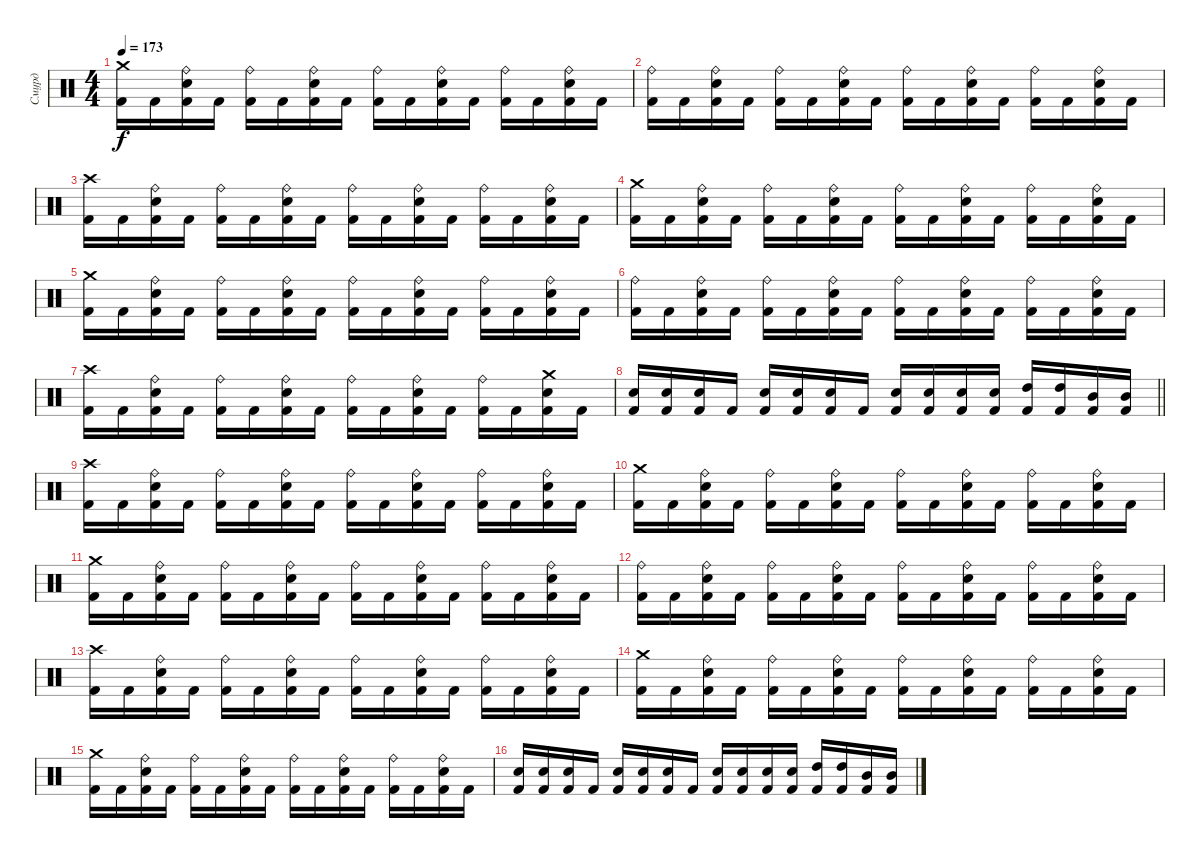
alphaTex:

\track ("Смурд" "Смурд") {instrument percussion}
\staff {score}
\articulation defaults
\ts (4 4)
\tempo 173
\clef neutral
\ks c
("Crash medium (hit)" "Kick (hit) 2").16{dy f} "Kick (hit) 2".16 ("Ride (bell)" "Electric Snare (hit)" "Kick (hit) 2").16 "Kick (hit) 2".16 ("Ride (bell)" "Kick (hit) 2").16 "Kick (hit) 2".16 ("Ride (bell)" "Electric Snare (hit)" "Kick (hit) 2").16 "Kick (hit) 2".16 ("Ride (bell)" "Kick (hit) 2").16 "Kick (hit) 2".16 ("Ride (bell)" "Electric Snare (hit)" "Kick (hit) 2").16 "Kick (hit) 2".16 ("Ride (bell)" "Kick (hit) 2").16 "Kick (hit) 2".16 ("Ride (bell)" "Electric Snare (hit)" "Kick (hit) 2").16 "Kick (hit) 2".16 |
("Ride (bell)" "Kick (hit) 2").16 "Kick (hit) 2".16 ("Ride (bell)" "Electric Snare (hit)" "Kick (hit) 2").16 "Kick (hit) 2".16 ("Ride (bell)" "Kick (hit) 2").16 "Kick (hit) 2".16 ("Ride (bell)" "Electric Snare (hit)" "Kick (hit) 2").16 "Kick (hit) 2".16 ("Ride (bell)" "Kick (hit) 2").16 "Kick (hit) 2".16 ("Ride (bell)" "Electric Snare (hit)" "Kick (hit) 2").16 "Kick (hit) 2".16 ("Ride (bell)" "Kick (hit) 2").16 "Kick (hit) 2".16 ("Ride (bell)" "Electric Snare (hit)" "Kick (hit) 2").16 "Kick (hit) 2".16 |
("Crash high (hit)" "Kick (hit) 2").16 "Kick (hit) 2".16 ("Ride (bell)" "Electric Snare (hit)" "Kick (hit) 2").16 "Kick (hit) 2".16 ("Ride (bell)" "Kick (hit) 2").16 "Kick (hit) 2".16 ("Ride (bell)" "Electric Snare (hit)" "Kick (hit) 2").16 "Kick (hit) 2".16 ("Ride (bell)" "Kick (hit) 2").16 "Kick (hit) 2".16 ("Ride (bell)" "Electric Snare (hit)" "Kick (hit) 2").16 "Kick (hit) 2".16 ("Ride (bell)" "Kick (hit) 2").16 "Kick (hit) 2".16 ("Ride (bell)" "Electric Snare (hit)" "Kick (hit) 2").16 "Kick (hit) 2".16 |
("Crash medium (hit)" "Kick (hit) 2").16 "Kick (hit) 2".16 ("Ride (bell)" "Electric Snare (hit)" "Kick (hit) 2").16 "Kick (hit) 2".16 ("Ride (bell)" "Kick (hit) 2").16 "Kick (hit) 2".16 ("Ride (bell)" "Electric Snare (hit)" "Kick (hit) 2").16 "Kick (hit) 2".16 ("Ride (bell)" "Kick (hit) 2").16 "Kick (hit) 2".16 ("Ride (bell)" "Electric Snare (hit)" "Kick (hit) 2").16 "Kick (hit) 2".16 ("Ride (bell)" "Kick (hit) 2").16 "Kick (hit) 2".16 ("Ride (bell)" "Electric Snare (hit)" "Kick (hit) 2").16 "Kick (hit) 2".16 |
("Crash medium (hit)" "Kick (hit) 2").16 "Kick (hit) 2".16 ("Ride (bell)" "Electric Snare (hit)" "Kick (hit) 2").16 "Kick (hit) 2".16 ("Ride (bell)" "Kick (hit) 2").16 "Kick (hit) 2".16 ("Ride (bell)" "Electric Snare (hit)" "Kick (hit) 2").16 "Kick (hit) 2".16 ("Ride (bell)" "Kick (hit) 2").16 "Kick (hit) 2".16 ("Ride (bell)" "Electric Snare (hit)" "Kick (hit) 2").16 "Kick (hit) 2".16 ("Ride (bell)" "Kick (hit) 2").16 "Kick (hit) 2".16 ("Ride (bell)" "Electric Snare (hit)" "Kick (hit) 2").16 "Kick (hit) 2".16 |
("Ride (bell)" "Kick (hit) 2").16 "Kick (hit) 2".16 ("Ride (bell)" "Electric Snare (hit)" "Kick (hit) 2").16 "Kick (hit) 2".16 ("Ride (bell)" "Kick (hit) 2").16 "Kick (hit) 2".16 ("Ride (bell)" "Electric Snare (hit)" "Kick (hit) 2").16 "Kick (hit) 2".16 ("Ride (bell)" "Kick (hit) 2").16 "Kick (hit) 2".16 ("Ride (bell)" "Electric Snare (hit)" "Kick (hit) 2").16 "Kick (hit) 2".16 ("Ride (bell)" "Kick (hit) 2").16 "Kick (hit) 2".16 ("Ride (bell)" "Electric Snare (hit)" "Kick (hit) 2").16 "Kick (hit) 2".16 |
("Crash high (hit)" "Kick (hit) 2").16 "Kick (hit) 2".16 ("Ride (bell)" "Electric Snare (hit)" "Kick (hit) 2").16 "Kick (hit) 2".16 ("Ride (bell)" "Kick (hit) 2").16 "Kick (hit) 2".16 ("Ride (bell)" "Electric Snare (hit)" "Kick (hit) 2").16 "Kick (hit) 2".16 ("Ride (bell)" "Kick (hit) 2").16 "Kick (hit) 2".16 ("Ride (bell)" "Electric Snare (hit)" "Kick (hit) 2").16 "Kick (hit) 2".16 ("Ride (bell)" "Kick (hit) 2").16 "Kick (hit) 2".16 ("Crash medium (hit)" "Electric Snare (hit)" "Kick (hit) 2").16 "Kick (hit) 2".16 |
\barLineRight lightlight
("Electric Snare (hit)" "Kick (hit) 2").16 ("Electric Snare (hit)" "Kick (hit) 2").16 ("Electric Snare (hit)" "Kick (hit) 2").16 "Kick (hit) 2".16 ("Electric Snare (hit)" "Kick (hit) 2").16 ("Electric Snare (hit)" "Kick (hit) 2").16 ("Electric Snare (hit)" "Kick (hit) 2").16 "Kick (hit) 2".16 ("Electric Snare (hit)" "Kick (hit) 2").16 ("Electric Snare (hit)" "Kick (hit) 2").16 ("Electric Snare (hit)" "Kick (hit) 2").16 ("Electric Snare (hit)" "Kick (hit) 2").16 ("High Tom (hit)" "Kick (hit) 2").16 ("High Tom (hit)" "Kick (hit) 2").16 ("Mid Tom (hit)" "Kick (hit) 2").16 ("Mid Tom (hit)" "Kick (hit) 2").16 |
("Crash high (hit)" "Kick (hit) 2").16 "Kick (hit) 2".16 ("Ride (bell)" "Electric Snare (hit)" "Kick (hit) 2").16 "Kick (hit) 2".16 ("Ride (bell)" "Kick (hit) 2").16 "Kick (hit) 2".16 ("Ride (bell)" "Electric Snare (hit)" "Kick (hit) 2").16 "Kick (hit) 2".16 ("Ride (bell)" "Kick (hit) 2").16 "Kick (hit) 2".16 ("Ride (bell)" "Electric Snare (hit)" "Kick (hit) 2").16 "Kick (hit) 2".16 ("Ride (bell)" "Kick (hit) 2").16 "Kick (hit) 2".16 ("Ride (bell)" "Electric Snare (hit)" "Kick (hit) 2").16 "Kick (hit) 2".16 |
("Crash medium (hit)" "Kick (hit) 2").16 "Kick (hit) 2".16 ("Ride (bell)" "Electric Snare (hit)" "Kick (hit) 2").16 "Kick (hit) 2".16 ("Ride (bell)" "Kick (hit) 2").16 "Kick (hit) 2".16 ("Ride (bell)" "Electric Snare (hit)" "Kick (hit) 2").16 "Kick (hit) 2".16 ("Ride (bell)" "Kick (hit) 2").16 "Kick (hit) 2".16 ("Ride (bell)" "Electric Snare (hit)" "Kick (hit) 2").16 "Kick (hit) 2".16 ("Ride (bell)" "Kick (hit) 2").16 "Kick (hit) 2".16 ("Ride (bell)" "Electric Snare (hit)" "Kick (hit) 2").16 "Kick (hit) 2".16 |
("Crash medium (hit)" "Kick (hit) 2").16 "Kick (hit) 2".16 ("Ride (bell)" "Electric Snare (hit)" "Kick (hit) 2").16 "Kick (hit) 2".16 ("Ride (bell)" "Kick (hit) 2").16 "Kick (hit) 2".16 ("Ride (bell)" "Electric Snare (hit)" "Kick (hit) 2").16 "Kick (hit) 2".16 ("Ride (bell)" "Kick (hit) 2").16 "Kick (hit) 2".16 ("Ride (bell)" "Electric Snare (hit)" "Kick (hit) 2").16 "Kick (hit) 2".16 ("Ride (bell)" "Kick (hit) 2").16 "Kick (hit) 2".16 ("Ride (bell)" "Electric Snare (hit)" "Kick (hit) 2").16 "Kick (hit) 2".16 |
("Ride (bell)" "Kick (hit) 2").16 "Kick (hit) 2".16 ("Ride (bell)" "Electric Snare (hit)" "Kick (hit) 2").16 "Kick (hit) 2".16 ("Ride (bell)" "Kick (hit) 2").16 "Kick (hit) 2".16 ("Ride (bell)" "Electric Snare (hit)" "Kick (hit) 2").16 "Kick (hit) 2".16 ("Ride (bell)" "Kick (hit) 2").16 "Kick (hit) 2".16 ("Ride (bell)" "Electric Snare (hit)" "Kick (hit) 2").16 "Kick (hit) 2".16 ("Ride (bell)" "Kick (hit) 2").16 "Kick (hit) 2".16 ("Ride (bell)" "Electric Snare (hit)" "Kick (hit) 2").16 "Kick (hit) 2".16 |
("Crash high (hit)" "Kick (hit) 2").16 "Kick (hit) 2".16 ("Ride (bell)" "Electric Snare (hit)" "Kick (hit) 2").16 "Kick (hit) 2".16 ("Ride (bell)" "Kick (hit) 2").16 "Kick (hit) 2".16 ("Ride (bell)" "Electric Snare (hit)" "Kick (hit) 2").16 "Kick (hit) 2".16 ("Ride (bell)" "Kick (hit) 2").16 "Kick (hit) 2".16 ("Ride (bell)" "Electric Snare (hit)" "Kick (hit) 2").16 "Kick (hit) 2".16 ("Ride (bell)" "Kick (hit) 2").16 "Kick (hit) 2".16 ("Ride (bell)" "Electric Snare (hit)" "Kick (hit) 2").16 "Kick (hit) 2".16 |
("Crash medium (hit)" "Kick (hit) 2").16 "Kick (hit) 2".16 ("Ride (bell)" "Electric Snare (hit)" "Kick (hit) 2").16 "Kick (hit) 2".16 ("Ride (bell)" "Kick (hit) 2").16 "Kick (hit) 2".16 ("Ride (bell)" "Electric Snare (hit)" "Kick (hit) 2").16 "Kick (hit) 2".16 ("Ride (bell)" "Kick (hit) 2").16 "Kick (hit) 2".16 ("Ride (bell)" "Electric Snare (hit)" "Kick (hit) 2").16 "Kick (hit) 2".16 ("Ride (bell)" "Kick (hit) 2").16 "Kick (hit) 2".16 ("Ride (bell)" "Electric Snare (hit)" "Kick (hit) 2").16 "Kick (hit) 2".16 |
("Crash medium (hit)" "Kick (hit) 2").16 "Kick (hit) 2".16 ("Ride (bell)" "Electric Snare (hit)" "Kick (hit) 2").16 "Kick (hit) 2".16 ("Ride (bell)" "Kick (hit) 2").16 "Kick (hit) 2".16 ("Ride (bell)" "Electric Snare (hit)" "Kick (hit) 2").16 "Kick (hit) 2".16 ("Ride (bell)" "Kick (hit) 2").16 "Kick (hit) 2".16 ("Ride (bell)" "Electric Snare (hit)" "Kick (hit) 2").16 "Kick (hit) 2".16 ("Ride (bell)" "Kick (hit) 2").16 "Kick (hit) 2".16 ("Ride (bell)" "Electric Snare (hit)" "Kick (hit) 2").16 "Kick (hit) 2".16 |
("Electric Snare (hit)" "Kick (hit) 2").16 ("Electric Snare (hit)" "Kick (hit) 2").16 ("Electric Snare (hit)" "Kick (hit) 2").16 "Kick (hit) 2".16 ("Electric Snare (hit)" "Kick (hit) 2").16 ("Electric Snare (hit)" "Kick (hit) 2").16 ("Electric Snare (hit)" "Kick (hit) 2").16 "Kick (hit) 2".16 ("Electric Snare (hit)" "Kick (hit) 2").16 ("Electric Snare (hit)" "Kick (hit) 2").16 ("Electric Snare (hit)" "Kick (hit) 2").16 ("Electric Snare (hit)" "Kick (hit) 2").16 ("High Tom (hit)" "Kick (hit) 2").16 ("High Tom (hit)" "Kick (hit) 2").16 ("Mid Tom (hit)" "Kick (hit) 2").16 ("Mid Tom (hit)" "Kick (hit) 2").16
